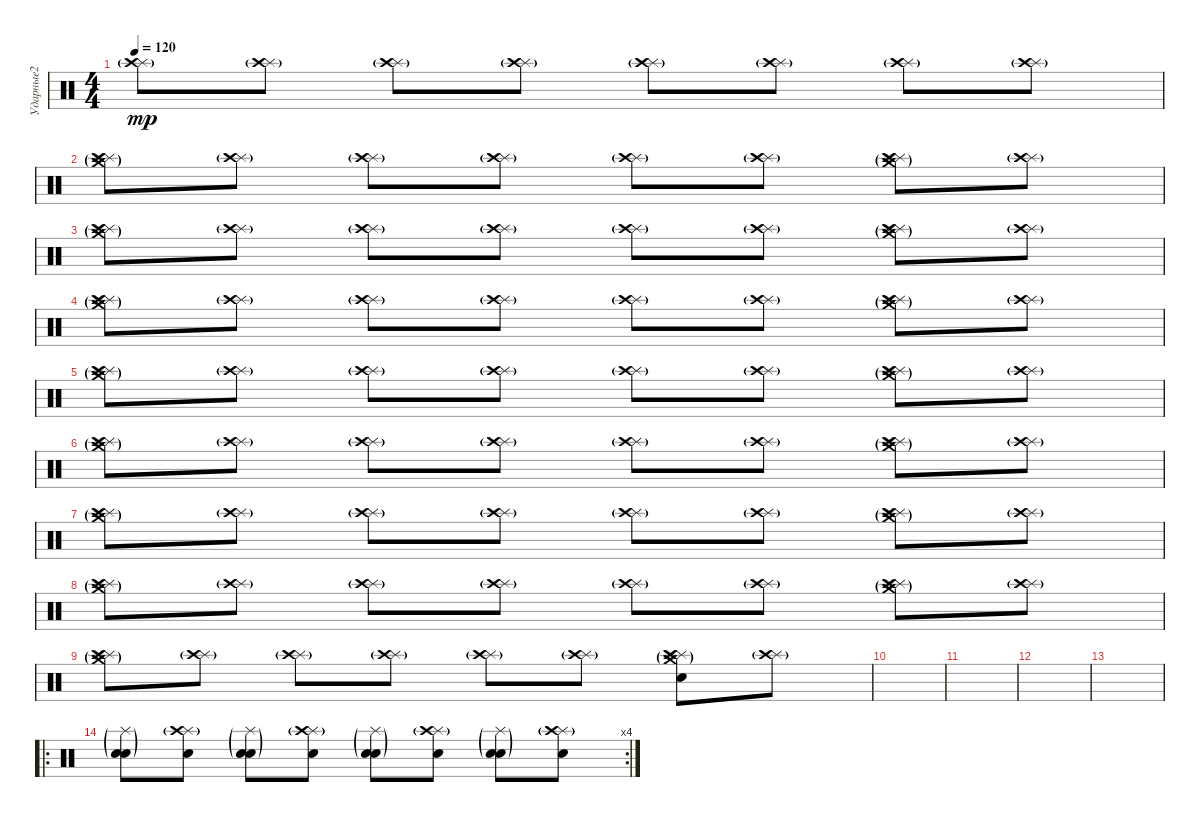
\track ("Ударные2" "Ударные2") {instrument percussion bank 2}
\staff {score}
\articulation defaults
\ts (4 4)
\tempo 120
\clef neutral
\ks c
("Splash (hit)"{g} "Crash high (hit)"{g}).8{dy mp} ("Splash (hit)"{g} "Crash high (hit)"{g}).8 ("Splash (hit)"{g} "Crash high (hit)"{g}).8 ("Splash (hit)"{g} "Crash high (hit)"{g}).8 ("Splash (hit)"{g} "Crash high (hit)"{g}).8 ("Splash (hit)"{g} "Crash high (hit)"{g}).8 ("Splash (hit)"{g} "Crash high (hit)"{g}).8 ("Splash (hit)"{g} "Crash high (hit)"{g}).8 |
("Splash (hit)" "Crash high (hit)"{g} "Splash (hit)"{g} "Crash medium (hit)"{g}).8 ("Splash (hit)"{g} "Crash high (hit)"{g}).8 ("Splash (hit)"{g} "Crash high (hit)"{g}).8 ("Splash (hit)"{g} "Crash high (hit)"{g}).8 ("Splash (hit)"{g} "Crash high (hit)"{g}).8 ("Splash (hit)"{g} "Crash high (hit)"{g}).8 ("Splash (hit)" "Crash high (hit)"{g} "Splash (hit)"{g} "Crash medium (hit)"{g}).8 ("Splash (hit)"{g} "Crash high (hit)"{g}).8 |
("Splash (hit)" "Crash high (hit)"{g} "Splash (hit)"{g} "Crash medium (hit)"{g}).8 ("Splash (hit)"{g} "Crash high (hit)"{g}).8 ("Splash (hit)"{g} "Crash high (hit)"{g}).8 ("Splash (hit)"{g} "Crash high (hit)"{g}).8 ("Splash (hit)"{g} "Crash high (hit)"{g}).8 ("Splash (hit)"{g} "Crash high (hit)"{g}).8 ("Splash (hit)" "Crash high (hit)"{g} "Splash (hit)"{g} "Crash medium (hit)"{g}).8 ("Splash (hit)"{g} "Crash high (hit)"{g}).8 |
("Splash (hit)" "Crash high (hit)"{g} "Splash (hit)"{g} "Crash medium (hit)"{g}).8 ("Splash (hit)"{g} "Crash high (hit)"{g}).8 ("Splash (hit)"{g} "Crash high (hit)"{g}).8 ("Splash (hit)"{g} "Crash high (hit)"{g}).8 ("Splash (hit)"{g} "Crash high (hit)"{g}).8 ("Splash (hit)"{g} "Crash high (hit)"{g}).8 ("Splash (hit)" "Crash high (hit)"{g} "Splash (hit)"{g} "Crash medium (hit)"{g}).8 ("Splash (hit)"{g} "Crash high (hit)"{g}).8 |
("Splash (hit)" "Crash high (hit)"{g} "Splash (hit)"{g} "Crash medium (hit)"{g}).8 ("Splash (hit)"{g} "Crash high (hit)"{g}).8 ("Splash (hit)"{g} "Crash high (hit)"{g}).8 ("Splash (hit)"{g} "Crash high (hit)"{g}).8 ("Splash (hit)"{g} "Crash high (hit)"{g}).8 ("Splash (hit)"{g} "Crash high (hit)"{g}).8 ("Splash (hit)"{g} "Crash high (hit)"{g} "Splash (hit)"{g} "Crash medium (hit)"{g}).8 ("Splash (hit)"{g} "Crash high (hit)"{g}).8 |
("Splash (hit)" "Crash high (hit)"{g} "Splash (hit)"{g} "Crash medium (hit)"{g}).8 ("Splash (hit)"{g} "Crash high (hit)"{g}).8 ("Splash (hit)"{g} "Crash high (hit)"{g}).8 ("Splash (hit)"{g} "Crash high (hit)"{g}).8 ("Splash (hit)"{g} "Crash high (hit)"{g}).8 ("Splash (hit)"{g} "Crash high (hit)"{g}).8 ("Splash (hit)" "Crash high (hit)"{g} "Splash (hit)"{g} "Crash medium (hit)"{g}).8 ("Splash (hit)"{g} "Crash high (hit)"{g}).8 |
("Splash (hit)" "Crash high (hit)"{g} "Splash (hit)"{g} "Crash medium (hit)"{g}).8 ("Splash (hit)"{g} "Crash high (hit)"{g}).8 ("Splash (hit)"{g} "Crash high (hit)"{g}).8 ("Splash (hit)"{g} "Crash high (hit)"{g}).8 ("Splash (hit)"{g} "Crash high (hit)"{g}).8 ("Splash (hit)"{g} "Crash high (hit)"{g}).8 ("Splash (hit)" "Crash high (hit)"{g} "Splash (hit)"{g} "Crash medium (hit)"{g}).8 ("Splash (hit)"{g} "Crash high (hit)"{g}).8 |
("Splash (hit)" "Crash high (hit)"{g} "Splash (hit)"{g} "Crash medium (hit)"{g}).8 ("Splash (hit)"{g} "Crash high (hit)"{g}).8 ("Splash (hit)"{g} "Crash high (hit)"{g}).8 ("Splash (hit)"{g} "Crash high (hit)"{g}).8 ("Splash (hit)"{g} "Crash high (hit)"{g}).8 ("Splash (hit)"{g} "Crash high (hit)"{g}).8 ("Splash (hit)" "Crash high (hit)"{g} "Splash (hit)"{g} "Crash medium (hit)"{g}).8 ("Splash (hit)"{g} "Crash high (hit)"{g}).8 |
("Splash (hit)" "Crash high (hit)"{g} "Splash (hit)"{g} "Crash medium (hit)"{g}).8 ("Splash (hit)"{g} "Crash high (hit)"{g}).8 ("Splash (hit)"{g} "Crash high (hit)"{g}).8 ("Splash (hit)"{g} "Crash high (hit)"{g}).8 ("Splash (hit)"{g} "Crash high (hit)"{g}).8 ("Splash (hit)"{g} "Crash high (hit)"{g}).8 ("Splash (hit)"{g} "Snare (hit)" "Crash high (hit)"{g} "Splash (hit)"{g} "Crash medium (hit)"{g}).8 ("Splash (hit)"{g} "Crash high (hit)"{g}).8 |
|
|
|
|
\ro
\rc 4
("Splash (hit)"{g} "Snare (hit)"{g} "Snare (hit)").8 ("Splash (hit)"{g} "Crash high (hit)"{g} "Snare (hit)").8 ("Splash (hit)"{g} "Snare (hit)"{g} "Snare (hit)").8 ("Splash (hit)"{g} "Crash high (hit)"{g} "Snare (hit)").8 ("Splash (hit)"{g} "Snare (hit)"{g} "Snare (hit)").8 ("Splash (hit)"{g} "Crash high (hit)"{g} "Snare (hit)").8 ("Splash (hit)"{g} "Snare (hit)"{g} "Snare (hit)").8 ("Splash (hit)"{g} "Crash high (hit)"{g} "Snare (hit)").8
